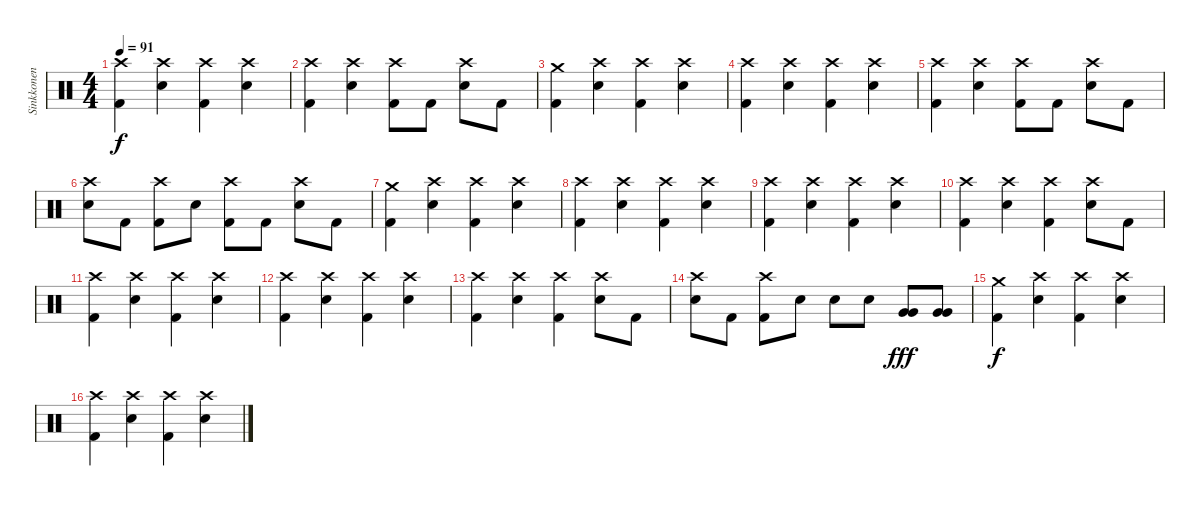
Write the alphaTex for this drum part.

\track ("Sinkkonen" "Sinkkonen") {instrument percussion}
\staff {score}
\articulation defaults
\ts (4 4)
\tempo 91
\clef neutral
\ks c
("Kick (hit) 2" "Crash high (hit)").4{dy f} ("Crash high (hit)" "Snare (hit) 2").4 ("Kick (hit) 2" "Crash high (hit)").4 ("Crash high (hit)" "Snare (hit) 2").4 |
("Kick (hit) 2" "Crash high (hit)").4 ("Crash high (hit)" "Snare (hit) 2").4 ("Kick (hit) 2" "Crash high (hit)").8 "Kick (hit) 2".8 ("Crash high (hit)" "Snare (hit) 2").8 "Kick (hit) 2".8 |
("Kick (hit) 2" "Crash medium (hit)").4 ("Crash high (hit)" "Snare (hit) 2").4 ("Kick (hit) 2" "Crash high (hit)").4 ("Crash high (hit)" "Snare (hit) 2").4 |
("Kick (hit) 2" "Crash high (hit)").4 ("Crash high (hit)" "Snare (hit) 2").4 ("Kick (hit) 2" "Crash high (hit)").4 ("Crash high (hit)" "Snare (hit) 2").4 |
("Kick (hit) 2" "Crash high (hit)").4 ("Crash high (hit)" "Snare (hit) 2").4 ("Kick (hit) 2" "Crash high (hit)").8 "Kick (hit) 2".8 ("Crash high (hit)" "Snare (hit) 2").8 "Kick (hit) 2".8 |
("Crash high (hit)" "Snare (hit) 2").8 "Kick (hit) 2".8 ("Kick (hit) 2" "Crash high (hit)").8 "Snare (hit) 2".8 ("Kick (hit) 2" "Crash high (hit)").8 "Kick (hit) 2".8 ("Crash high (hit)" "Snare (hit) 2").8 "Kick (hit) 2".8 |
("Kick (hit) 2" "Crash medium (hit)").4 ("Crash high (hit)" "Snare (hit) 2").4 ("Kick (hit) 2" "Crash high (hit)").4 ("Crash high (hit)" "Snare (hit) 2").4 |
("Kick (hit) 2" "Crash high (hit)").4 ("Crash high (hit)" "Snare (hit) 2").4 ("Kick (hit) 2" "Crash high (hit)").4 ("Crash high (hit)" "Snare (hit) 2").4 |
("Kick (hit) 2" "Crash high (hit)").4 ("Crash high (hit)" "Snare (hit) 2").4 ("Kick (hit) 2" "Crash high (hit)").4 ("Crash high (hit)" "Snare (hit) 2").4 |
("Kick (hit) 2" "Crash high (hit)").4 ("Crash high (hit)" "Snare (hit) 2").4 ("Kick (hit) 2" "Crash high (hit)").4 ("Crash high (hit)" "Snare (hit) 2").8 "Kick (hit) 2".8 |
("Kick (hit) 2" "Crash high (hit)").4 ("Crash high (hit)" "Snare (hit) 2").4 ("Kick (hit) 2" "Crash high (hit)").4 ("Crash high (hit)" "Snare (hit) 2").4 |
("Kick (hit) 2" "Crash high (hit)").4 ("Crash high (hit)" "Snare (hit) 2").4 ("Kick (hit) 2" "Crash high (hit)").4 ("Crash high (hit)" "Snare (hit) 2").4 |
("Kick (hit) 2" "Crash high (hit)").4 ("Crash high (hit)" "Snare (hit) 2").4 ("Kick (hit) 2" "Crash high (hit)").4 ("Crash high (hit)" "Snare (hit) 2").8 "Kick (hit) 2".8 |
("Crash high (hit)" "Snare (hit) 2").8 "Kick (hit) 2".8 ("Kick (hit) 2" "Crash high (hit)").8 "Snare (hit) 2".8 "Snare (hit) 2".8 "Snare (hit) 2".8 ("Very Low Tom (hit)" "Very Low Tom (hit)").8{dy fff} ("Very Low Tom (hit)" "Very Low Tom (hit)").8 |
("Kick (hit) 2" "Crash medium (hit)").4{dy f} ("Crash high (hit)" "Snare (hit) 2").4 ("Kick (hit) 2" "Crash high (hit)").4 ("Crash high (hit)" "Snare (hit) 2").4 |
("Kick (hit) 2" "Crash high (hit)").4 ("Crash high (hit)" "Snare (hit) 2").4 ("Kick (hit) 2" "Crash high (hit)").4 ("Crash high (hit)" "Snare (hit) 2").4
